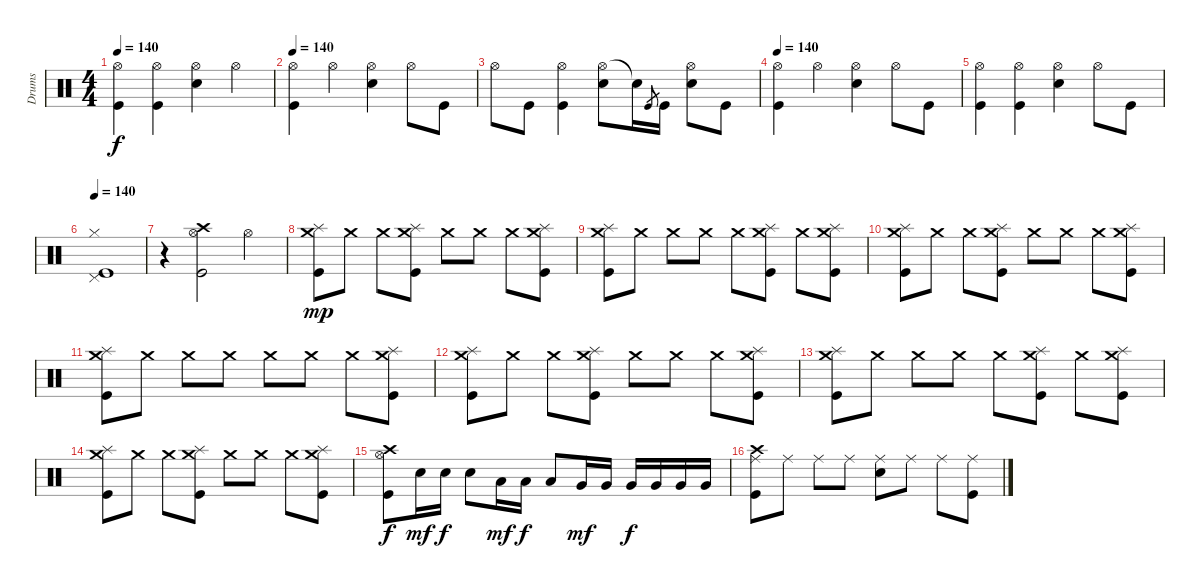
\track ("Drums" "Drums") {instrument percussion}
\staff {score}
\articulation defaults
\ts (4 4)
\tempo 140
\clef neutral
\ks c
("Hi-Hat (open)" "Kick (hit)").4{dy f} ("Hi-Hat (open)" "Kick (hit)").4 ("Hi-Hat (open)" "Electric Snare (hit)").4 "Hi-Hat (open)".4 |
\tempo 140
("Hi-Hat (open)" "Kick (hit)").4 "Hi-Hat (open)".4 ("Hi-Hat (open)" "Electric Snare (hit)").4 "Hi-Hat (open)".8 "Kick (hit)".8 |
"Hi-Hat (open)".8 "Kick (hit)".8 ("Hi-Hat (open)" "Kick (hit)").4 ("Hi-Hat (open)" "Electric Snare (hit)").8 "Snare (hit)"{t}.16 "Kick (hit)".8{gr} "Kick (hit)".16 ("Hi-Hat (open)" "Electric Snare (hit)").8 "Kick (hit)".8 |
\tempo 140
("Hi-Hat (open)" "Kick (hit)").4 "Hi-Hat (open)".4 ("Hi-Hat (open)" "Electric Snare (hit)").4 "Hi-Hat (open)".8 "Kick (hit)".8 |
("Hi-Hat (open)" "Kick (hit)").4 ("Hi-Hat (open)" "Kick (hit)").4 ("Hi-Hat (open)" "Electric Snare (hit)").4 "Hi-Hat (open)".8 "Kick (hit)".8 |
\tempo 140
("Hi-Hat (closed)" "Pedal Hi-Hat (hit)" "Kick (hit)").1 |
r.4 ("Crash high (hit)" "Hi-Hat (open)" "Kick (hit)").2 "Hi-Hat (open)".4 |
("Splash (hit)" "Crash medium (hit)" "Kick (hit)").8{dy mp} "Crash medium (hit)".8 "Crash medium (hit)".8 ("Splash (hit)" "Crash medium (hit)" "Kick (hit)").8 "Crash medium (hit)".8 "Crash medium (hit)".8 "Crash medium (hit)".8 ("Splash (hit)" "Crash medium (hit)" "Kick (hit)").8 |
("Splash (hit)" "Crash medium (hit)" "Kick (hit)").8 "Crash medium (hit)".8 "Crash medium (hit)".8 "Crash medium (hit)".8 "Crash medium (hit)".8 ("Splash (hit)" "Crash medium (hit)" "Kick (hit)").8 "Crash medium (hit)".8 ("Splash (hit)" "Crash medium (hit)" "Kick (hit)").8 |
("Splash (hit)" "Crash medium (hit)" "Kick (hit)").8 "Crash medium (hit)".8 "Crash medium (hit)".8 ("Splash (hit)" "Crash medium (hit)" "Kick (hit)").8 "Crash medium (hit)".8 "Crash medium (hit)".8 "Crash medium (hit)".8 ("Splash (hit)" "Crash medium (hit)" "Kick (hit)").8 |
("Splash (hit)" "Crash medium (hit)" "Kick (hit)").8 "Crash medium (hit)".8 "Crash medium (hit)".8 "Crash medium (hit)".8 "Crash medium (hit)".8 "Crash medium (hit)".8 "Crash medium (hit)".8 ("Splash (hit)" "Crash medium (hit)" "Kick (hit)").8 |
("Splash (hit)" "Crash medium (hit)" "Kick (hit)").8 "Crash medium (hit)".8 "Crash medium (hit)".8 ("Splash (hit)" "Crash medium (hit)" "Kick (hit)").8 "Crash medium (hit)".8 "Crash medium (hit)".8 "Crash medium (hit)".8 ("Splash (hit)" "Crash medium (hit)" "Kick (hit)").8 |
("Splash (hit)" "Crash medium (hit)" "Kick (hit)").8 "Crash medium (hit)".8 "Crash medium (hit)".8 "Crash medium (hit)".8 "Crash medium (hit)".8 ("Splash (hit)" "Crash medium (hit)" "Kick (hit)").8 "Crash medium (hit)".8 ("Splash (hit)" "Crash medium (hit)" "Kick (hit)").8 |
("Splash (hit)" "Crash medium (hit)" "Kick (hit)").8 "Crash medium (hit)".8 "Crash medium (hit)".8 ("Splash (hit)" "Crash medium (hit)" "Kick (hit)").8 "Crash medium (hit)".8 "Crash medium (hit)".8 "Crash medium (hit)".8 ("Splash (hit)" "Crash medium (hit)" "Kick (hit)").8 |
("Crash high (hit)" "Hi-Hat (open)" "Kick (hit)").8{dy f} "Electric Snare (hit)".16{dy mf} "Electric Snare (hit)".16{dy f} "Electric Snare (hit)".8 "Low Tom (hit)".16{dy mf} "Low Tom (hit)".16{dy f} "Low Tom (hit)".8 "Very Low Tom (hit)".16{dy mf} "Very Low Tom (hit)".16 "Very Low Tom (hit)".16{dy f} "Very Low Tom (hit)".16 "Very Low Tom (hit)".16 "Very Low Tom (hit)".16 |
("Crash high (hit)" "Ride (middle)" "Kick (hit)").8 "Ride (middle)".8 "Ride (middle)".8 "Ride (middle)".8 ("Ride (middle)" "Electric Snare (hit)").8 "Ride (middle)".8 "Ride (middle)".8 ("Ride (middle)" "Kick (hit)").8
